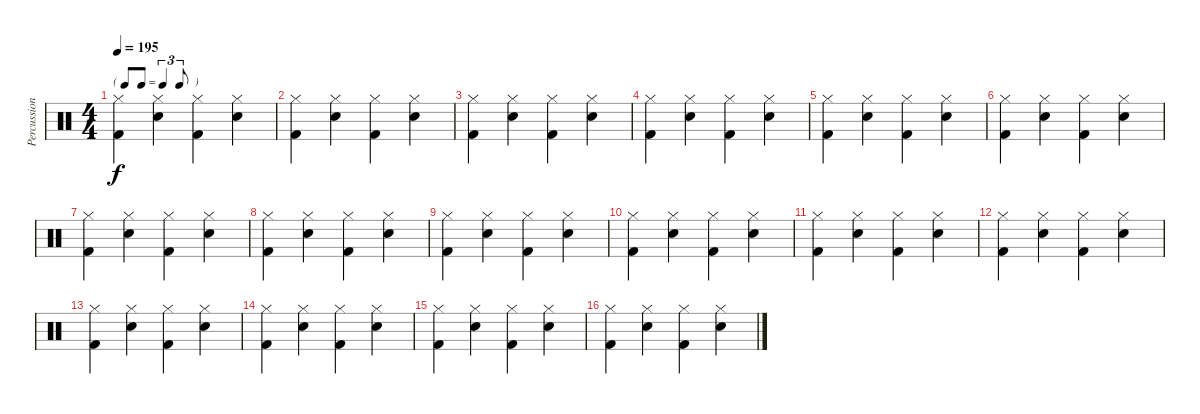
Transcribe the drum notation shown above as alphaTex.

\track ("Percussions" "Percussion") {instrument percussion}
\staff {score}
\articulation defaults
\ts (4 4)
\tf triplet8th
\tempo 195
\clef neutral
\ks c
("Hi-Hat (closed)" "Kick (hit) 2").4{dy f} ("Snare (hit) 2" "Hi-Hat (closed)").4 ("Hi-Hat (closed)" "Kick (hit) 2").4 ("Snare (hit) 2" "Hi-Hat (closed)").4 |
("Hi-Hat (closed)" "Kick (hit) 2").4 ("Snare (hit) 2" "Hi-Hat (closed)").4 ("Hi-Hat (closed)" "Kick (hit) 2").4 ("Snare (hit) 2" "Hi-Hat (closed)").4 |
("Hi-Hat (closed)" "Kick (hit) 2").4 ("Snare (hit) 2" "Hi-Hat (closed)").4 ("Hi-Hat (closed)" "Kick (hit) 2").4 ("Snare (hit) 2" "Hi-Hat (closed)").4 |
("Hi-Hat (closed)" "Kick (hit) 2").4 ("Snare (hit) 2" "Hi-Hat (closed)").4 ("Hi-Hat (closed)" "Kick (hit) 2").4 ("Snare (hit) 2" "Hi-Hat (closed)").4 |
("Hi-Hat (closed)" "Kick (hit) 2").4 ("Snare (hit) 2" "Hi-Hat (closed)").4 ("Hi-Hat (closed)" "Kick (hit) 2").4 ("Snare (hit) 2" "Hi-Hat (closed)").4 |
("Hi-Hat (closed)" "Kick (hit) 2").4 ("Snare (hit) 2" "Hi-Hat (closed)").4 ("Hi-Hat (closed)" "Kick (hit) 2").4 ("Snare (hit) 2" "Hi-Hat (closed)").4 |
("Hi-Hat (closed)" "Kick (hit) 2").4 ("Snare (hit) 2" "Hi-Hat (closed)").4 ("Hi-Hat (closed)" "Kick (hit) 2").4 ("Snare (hit) 2" "Hi-Hat (closed)").4 |
("Hi-Hat (closed)" "Kick (hit) 2").4 ("Snare (hit) 2" "Hi-Hat (closed)").4 ("Hi-Hat (closed)" "Kick (hit) 2").4 ("Snare (hit) 2" "Hi-Hat (closed)").4 |
("Hi-Hat (closed)" "Kick (hit) 2").4 ("Snare (hit) 2" "Hi-Hat (closed)").4 ("Hi-Hat (closed)" "Kick (hit) 2").4 ("Snare (hit) 2" "Hi-Hat (closed)").4 |
("Hi-Hat (closed)" "Kick (hit) 2").4 ("Snare (hit) 2" "Hi-Hat (closed)").4 ("Hi-Hat (closed)" "Kick (hit) 2").4 ("Snare (hit) 2" "Hi-Hat (closed)").4 |
("Hi-Hat (closed)" "Kick (hit) 2").4 ("Snare (hit) 2" "Hi-Hat (closed)").4 ("Hi-Hat (closed)" "Kick (hit) 2").4 ("Snare (hit) 2" "Hi-Hat (closed)").4 |
("Hi-Hat (closed)" "Kick (hit) 2").4 ("Snare (hit) 2" "Hi-Hat (closed)").4 ("Hi-Hat (closed)" "Kick (hit) 2").4 ("Snare (hit) 2" "Hi-Hat (closed)").4 |
("Hi-Hat (closed)" "Kick (hit) 2").4 ("Snare (hit) 2" "Hi-Hat (closed)").4 ("Hi-Hat (closed)" "Kick (hit) 2").4 ("Snare (hit) 2" "Hi-Hat (closed)").4 |
("Hi-Hat (closed)" "Kick (hit) 2").4 ("Snare (hit) 2" "Hi-Hat (closed)").4 ("Hi-Hat (closed)" "Kick (hit) 2").4 ("Snare (hit) 2" "Hi-Hat (closed)").4 |
("Hi-Hat (closed)" "Kick (hit) 2").4 ("Snare (hit) 2" "Hi-Hat (closed)").4 ("Hi-Hat (closed)" "Kick (hit) 2").4 ("Snare (hit) 2" "Hi-Hat (closed)").4 |
("Hi-Hat (closed)" "Kick (hit) 2").4 ("Snare (hit) 2" "Hi-Hat (closed)").4 ("Hi-Hat (closed)" "Kick (hit) 2").4 ("Snare (hit) 2" "Hi-Hat (closed)").4
